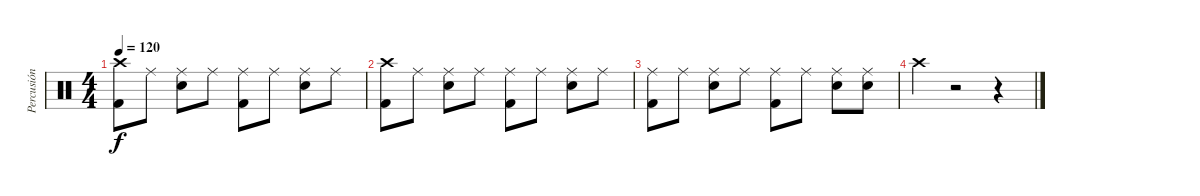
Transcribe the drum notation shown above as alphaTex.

\track ("Percusión" "Percusión") {instrument percussion}
\staff {score}
\articulation defaults
\ts (4 4)
\tempo 120
\clef neutral
\ks c
("Crash high (hit)" "Kick (hit) 2").8{dy f} "Ride (middle)".8 ("Ride (middle)" "Electric Snare (hit)").8 "Ride (middle)".8 ("Kick (hit) 2" "Ride (middle)").8 "Ride (middle)".8 ("Electric Snare (hit)" "Ride (middle)").8 "Ride (middle)".8 |
("Crash high (hit)" "Kick (hit) 2").8 "Ride (middle)".8 ("Ride (middle)" "Electric Snare (hit)").8 "Ride (middle)".8 ("Kick (hit) 2" "Ride (middle)").8 "Ride (middle)".8 ("Electric Snare (hit)" "Ride (middle)").8 "Ride (middle)".8 |
("Ride (middle)" "Kick (hit) 2").8 "Ride (middle)".8 ("Ride (middle)" "Electric Snare (hit)").8 "Ride (middle)".8 ("Kick (hit) 2" "Ride (middle)").8 "Ride (middle)".8 ("Ride (middle)" "Electric Snare (hit)").8 ("Ride (middle)" "Electric Snare (hit)").8 |
"Crash high (hit)".4 r.2 r.4
